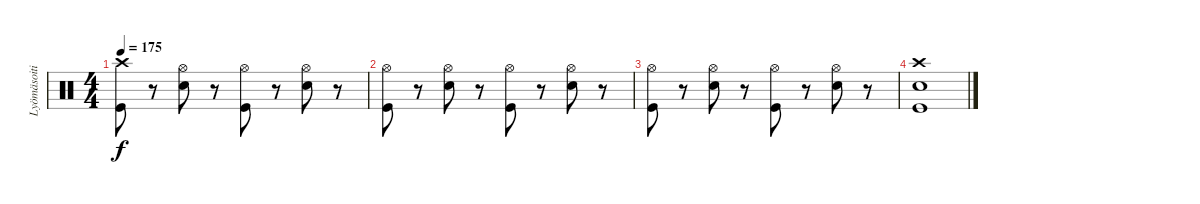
\track ("Lyömäsoitin" "Lyömäsoiti") {instrument percussion}
\staff {score}
\articulation defaults
\ts (4 4)
\tempo 175
\clef neutral
\ks c
("Crash high (hit)" "Kick (hit)").8{dy f} r.8 ("Hi-Hat (open)" "Electric Snare (hit)").8 r.8 ("Hi-Hat (open)" "Kick (hit)").8 r.8 ("Hi-Hat (open)" "Electric Snare (hit)").8 r.8 |
("Hi-Hat (open)" "Kick (hit)").8 r.8 ("Hi-Hat (open)" "Electric Snare (hit)").8 r.8 ("Hi-Hat (open)" "Kick (hit)").8 r.8 ("Hi-Hat (open)" "Electric Snare (hit)").8 r.8 |
("Hi-Hat (open)" "Kick (hit)").8 r.8 ("Hi-Hat (open)" "Electric Snare (hit)").8 r.8 ("Hi-Hat (open)" "Kick (hit)").8 r.8 ("Hi-Hat (open)" "Electric Snare (hit)").8 r.8 |
("Crash high (hit)" "Electric Snare (hit)" "Kick (hit)").1
